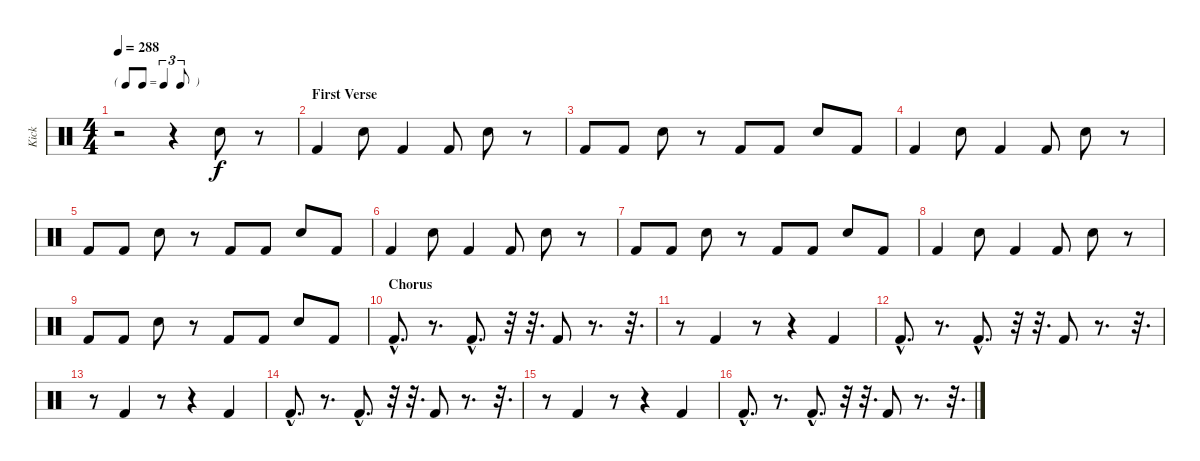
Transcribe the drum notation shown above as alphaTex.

\track ("Kick" "Kick") {instrument percussion}
\staff {score}
\articulation defaults
\ts (4 4)
\tf triplet8th
\tempo 288
\clef neutral
\ks c
r.2{dy f} r.4 "Snare (hit) 2".8 r.8 |
\section ("" "First Verse")
"Kick (hit) 2".4 "Snare (hit) 2".8 "Kick (hit) 2".4 "Kick (hit) 2".8 "Snare (hit) 2".8 r.8 |
"Kick (hit) 2".8 "Kick (hit) 2".8 "Snare (hit) 2".8 r.8 "Kick (hit) 2".8 "Kick (hit) 2".8 "Snare (hit) 2".8 "Kick (hit) 2".8 |
"Kick (hit) 2".4 "Snare (hit) 2".8 "Kick (hit) 2".4 "Kick (hit) 2".8 "Snare (hit) 2".8 r.8 |
"Kick (hit) 2".8 "Kick (hit) 2".8 "Snare (hit) 2".8 r.8 "Kick (hit) 2".8 "Kick (hit) 2".8 "Snare (hit) 2".8 "Kick (hit) 2".8 |
"Kick (hit) 2".4 "Snare (hit) 2".8 "Kick (hit) 2".4 "Kick (hit) 2".8 "Snare (hit) 2".8 r.8 |
"Kick (hit) 2".8 "Kick (hit) 2".8 "Snare (hit) 2".8 r.8 "Kick (hit) 2".8 "Kick (hit) 2".8 "Snare (hit) 2".8 "Kick (hit) 2".8 |
"Kick (hit) 2".4 "Snare (hit) 2".8 "Kick (hit) 2".4 "Kick (hit) 2".8 "Snare (hit) 2".8 r.8 |
"Kick (hit) 2".8 "Kick (hit) 2".8 "Snare (hit) 2".8 r.8 "Kick (hit) 2".8 "Kick (hit) 2".8 "Snare (hit) 2".8 "Kick (hit) 2".8 |
\section ("" "Chorus")
"Kick (hit) 2"{hac}.8{d} r.8{d} "Kick (hit) 2"{hac}.8{d} r.32 r.32{d} "Kick (hit) 2".8 r.8{d} r.32{d} |
r.8 "Kick (hit) 2".4 r.8 r.4 "Kick (hit) 2".4 |
"Kick (hit) 2"{hac}.8{d} r.8{d} "Kick (hit) 2"{hac}.8{d} r.32 r.32{d} "Kick (hit) 2".8 r.8{d} r.32{d} |
r.8 "Kick (hit) 2".4 r.8 r.4 "Kick (hit) 2".4 |
"Kick (hit) 2"{hac}.8{d} r.8{d} "Kick (hit) 2"{hac}.8{d} r.32 r.32{d} "Kick (hit) 2".8 r.8{d} r.32{d} |
r.8 "Kick (hit) 2".4 r.8 r.4 "Kick (hit) 2".4 |
"Kick (hit) 2"{hac}.8{d} r.8{d} "Kick (hit) 2"{hac}.8{d} r.32 r.32{d} "Kick (hit) 2".8 r.8{d} r.32{d}
